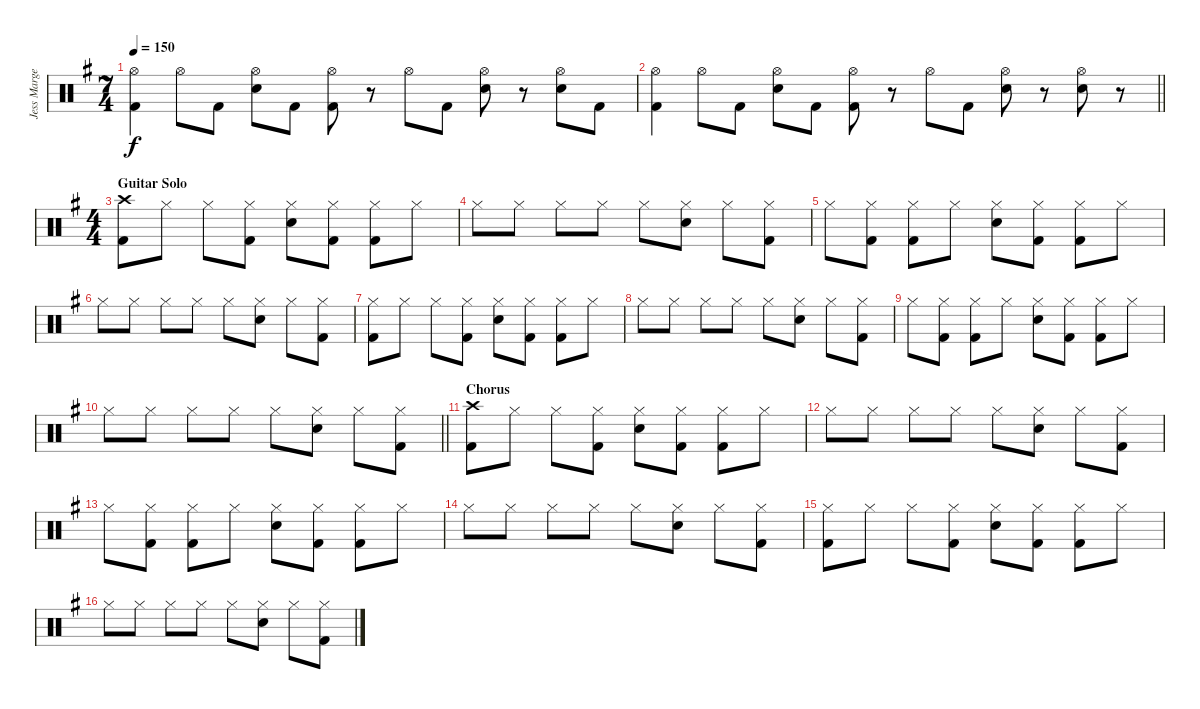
\track ("Jess Margera" "Jess Marge") {instrument percussion}
\staff {score}
\articulation defaults
\ts (7 4)
\tempo 150
\clef neutral
\ks g
("Hi-Hat (open)" "Kick (hit) 2").4{dy f} "Hi-Hat (open)".8 "Kick (hit) 2".8 ("Hi-Hat (open)" "Electric Snare (hit)").8 "Kick (hit) 2".8 ("Hi-Hat (open)" "Kick (hit) 2").8 r.8 "Hi-Hat (open)".8 "Kick (hit) 2".8 ("Hi-Hat (open)" "Electric Snare (hit)").8 r.8 ("Hi-Hat (open)" "Electric Snare (hit)").8 "Kick (hit) 2".8 |
\barLineRight lightlight
("Hi-Hat (open)" "Kick (hit) 2").4 "Hi-Hat (open)".8 "Kick (hit) 2".8 ("Hi-Hat (open)" "Electric Snare (hit)").8 "Kick (hit) 2".8 ("Hi-Hat (open)" "Kick (hit) 2").8 r.8 "Hi-Hat (open)".8 "Kick (hit) 2".8 ("Hi-Hat (open)" "Electric Snare (hit)").8 r.8 ("Hi-Hat (open)" "Electric Snare (hit)").8 r.8 |
\ts (4 4)
\section ("" "Guitar Solo")
("Crash high (hit)" "Kick (hit) 2").8 "Hi-Hat (closed)".8 "Hi-Hat (closed)".8 ("Hi-Hat (closed)" "Kick (hit) 2").8 ("Hi-Hat (closed)" "Electric Snare (hit)").8 ("Hi-Hat (closed)" "Kick (hit) 2").8 ("Hi-Hat (closed)" "Kick (hit) 2").8 "Hi-Hat (closed)".8 |
"Hi-Hat (closed)".8 "Hi-Hat (closed)".8 "Hi-Hat (closed)".8 "Hi-Hat (closed)".8 "Hi-Hat (closed)".8 ("Hi-Hat (closed)" "Electric Snare (hit)").8 "Hi-Hat (closed)".8 ("Hi-Hat (closed)" "Kick (hit) 2").8 |
"Hi-Hat (closed)".8 ("Hi-Hat (closed)" "Kick (hit) 2").8 ("Hi-Hat (closed)" "Kick (hit) 2").8 "Hi-Hat (closed)".8 ("Hi-Hat (closed)" "Electric Snare (hit)").8 ("Hi-Hat (closed)" "Kick (hit) 2").8 ("Hi-Hat (closed)" "Kick (hit) 2").8 "Hi-Hat (closed)".8 |
"Hi-Hat (closed)".8 "Hi-Hat (closed)".8 "Hi-Hat (closed)".8 "Hi-Hat (closed)".8 "Hi-Hat (closed)".8 ("Hi-Hat (closed)" "Electric Snare (hit)").8 "Hi-Hat (closed)".8 ("Hi-Hat (closed)" "Kick (hit) 2").8 |
("Hi-Hat (closed)" "Kick (hit) 2").8 "Hi-Hat (closed)".8 "Hi-Hat (closed)".8 ("Hi-Hat (closed)" "Kick (hit) 2").8 ("Hi-Hat (closed)" "Electric Snare (hit)").8 ("Hi-Hat (closed)" "Kick (hit) 2").8 ("Hi-Hat (closed)" "Kick (hit) 2").8 "Hi-Hat (closed)".8 |
"Hi-Hat (closed)".8 "Hi-Hat (closed)".8 "Hi-Hat (closed)".8 "Hi-Hat (closed)".8 "Hi-Hat (closed)".8 ("Hi-Hat (closed)" "Electric Snare (hit)").8 "Hi-Hat (closed)".8 ("Hi-Hat (closed)" "Kick (hit) 2").8 |
"Hi-Hat (closed)".8 ("Hi-Hat (closed)" "Kick (hit) 2").8 ("Hi-Hat (closed)" "Kick (hit) 2").8 "Hi-Hat (closed)".8 ("Hi-Hat (closed)" "Electric Snare (hit)").8 ("Hi-Hat (closed)" "Kick (hit) 2").8 ("Hi-Hat (closed)" "Kick (hit) 2").8 "Hi-Hat (closed)".8 |
\barLineRight lightlight "Hi-Hat (closed)".8 "Hi-Hat (closed)".8 "Hi-Hat (closed)".8 "Hi-Hat (closed)".8 "Hi-Hat (closed)".8
("Hi-Hat (closed)" "Electric Snare (hit)").8 "Hi-Hat (closed)".8 ("Hi-Hat (closed)" "Kick (hit) 2").8 |
\section ("" "Chorus")
("Crash high (hit)" "Kick (hit) 2").8 "Hi-Hat (closed)".8 "Hi-Hat (closed)".8 ("Hi-Hat (closed)" "Kick (hit) 2").8 ("Hi-Hat (closed)" "Electric Snare (hit)").8 ("Hi-Hat (closed)" "Kick (hit) 2").8 ("Hi-Hat (closed)" "Kick (hit) 2").8 "Hi-Hat (closed)".8 |
"Hi-Hat (closed)".8 "Hi-Hat (closed)".8 "Hi-Hat (closed)".8 "Hi-Hat (closed)".8 "Hi-Hat (closed)".8 ("Hi-Hat (closed)" "Electric Snare (hit)").8 "Hi-Hat (closed)".8 ("Hi-Hat (closed)" "Kick (hit) 2").8 |
"Hi-Hat (closed)".8 ("Hi-Hat (closed)" "Kick (hit) 2").8 ("Hi-Hat (closed)" "Kick (hit) 2").8 "Hi-Hat (closed)".8 ("Hi-Hat (closed)" "Electric Snare (hit)").8 ("Hi-Hat (closed)" "Kick (hit) 2").8 ("Hi-Hat (closed)" "Kick (hit) 2").8 "Hi-Hat (closed)".8 |
"Hi-Hat (closed)".8 "Hi-Hat (closed)".8 "Hi-Hat (closed)".8 "Hi-Hat (closed)".8 "Hi-Hat (closed)".8 ("Hi-Hat (closed)" "Electric Snare (hit)").8 "Hi-Hat (closed)".8 ("Hi-Hat (closed)" "Kick (hit) 2").8 |
("Hi-Hat (closed)" "Kick (hit) 2").8 "Hi-Hat (closed)".8 "Hi-Hat (closed)".8 ("Hi-Hat (closed)" "Kick (hit) 2").8 ("Hi-Hat (closed)" "Electric Snare (hit)").8 ("Hi-Hat (closed)" "Kick (hit) 2").8 ("Hi-Hat (closed)" "Kick (hit) 2").8 "Hi-Hat (closed)".8 |
"Hi-Hat (closed)".8 "Hi-Hat (closed)".8 "Hi-Hat (closed)".8 "Hi-Hat (closed)".8 "Hi-Hat (closed)".8 ("Hi-Hat (closed)" "Electric Snare (hit)").8 "Hi-Hat (closed)".8 ("Hi-Hat (closed)" "Kick (hit) 2").8
